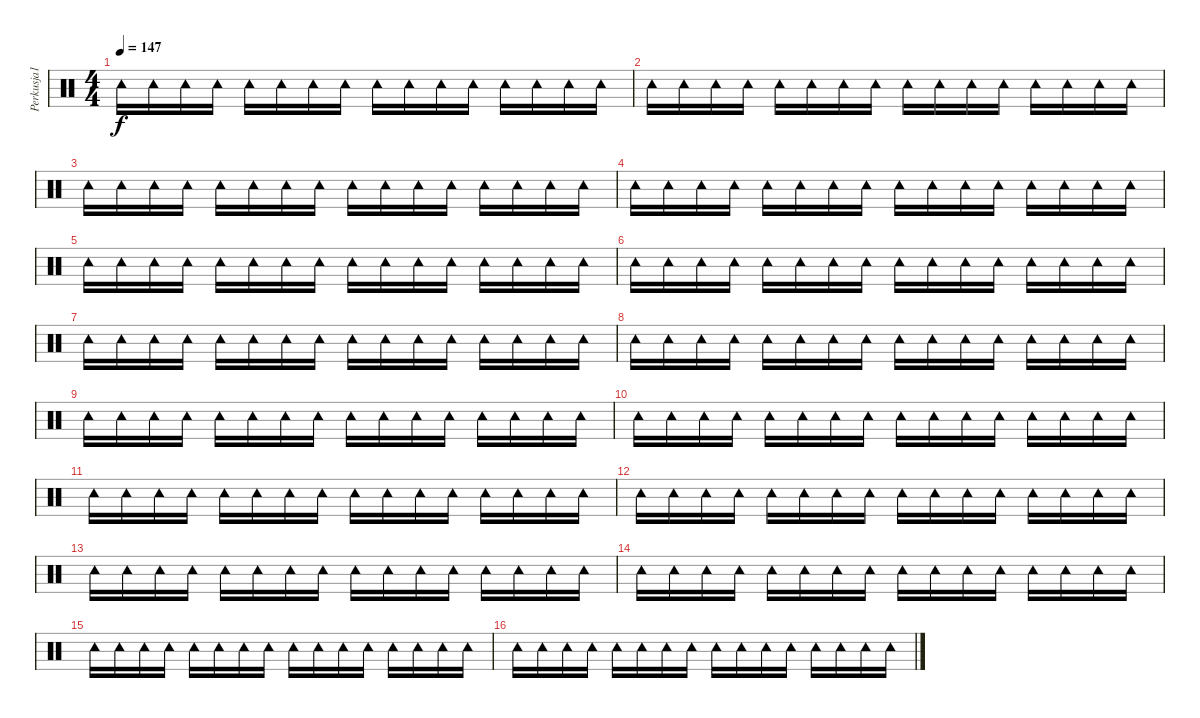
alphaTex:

\track ("Perkusja1" "Perkusja1") {instrument percussion}
\staff {score}
\articulation defaults
\ts (4 4)
\tempo 147
\clef neutral
\ks c "Tambourine (hit)".16{dy f} "Tambourine (hit)".16 "Tambourine (hit)".16 "Tambourine (hit)".16 "Tambourine (hit)".16 "Tambourine (hit)".16 "Tambourine (hit)".16 "Tambourine (hit)".16 "Tambourine (hit)".16 "Tambourine (hit)".16 "Tambourine (hit)".16 "Tambourine (hit)".16 "Tambourine (hit)".16 "Tambourine (hit)".16 "Tambourine (hit)".16 "Tambourine (hit)".16
|
"Tambourine (hit)".16 "Tambourine (hit)".16 "Tambourine (hit)".16 "Tambourine (hit)".16 "Tambourine (hit)".16 "Tambourine (hit)".16 "Tambourine (hit)".16 "Tambourine (hit)".16 "Tambourine (hit)".16 "Tambourine (hit)".16 "Tambourine (hit)".16 "Tambourine (hit)".16 "Tambourine (hit)".16 "Tambourine (hit)".16 "Tambourine (hit)".16 "Tambourine (hit)".16 |
"Tambourine (hit)".16 "Tambourine (hit)".16 "Tambourine (hit)".16 "Tambourine (hit)".16 "Tambourine (hit)".16 "Tambourine (hit)".16 "Tambourine (hit)".16 "Tambourine (hit)".16 "Tambourine (hit)".16 "Tambourine (hit)".16 "Tambourine (hit)".16 "Tambourine (hit)".16 "Tambourine (hit)".16 "Tambourine (hit)".16 "Tambourine (hit)".16 "Tambourine (hit)".16 |
"Tambourine (hit)".16 "Tambourine (hit)".16 "Tambourine (hit)".16 "Tambourine (hit)".16 "Tambourine (hit)".16 "Tambourine (hit)".16 "Tambourine (hit)".16 "Tambourine (hit)".16 "Tambourine (hit)".16 "Tambourine (hit)".16 "Tambourine (hit)".16 "Tambourine (hit)".16 "Tambourine (hit)".16 "Tambourine (hit)".16 "Tambourine (hit)".16 "Tambourine (hit)".16 |
"Tambourine (hit)".16 "Tambourine (hit)".16 "Tambourine (hit)".16 "Tambourine (hit)".16 "Tambourine (hit)".16 "Tambourine (hit)".16 "Tambourine (hit)".16 "Tambourine (hit)".16 "Tambourine (hit)".16 "Tambourine (hit)".16 "Tambourine (hit)".16 "Tambourine (hit)".16 "Tambourine (hit)".16 "Tambourine (hit)".16 "Tambourine (hit)".16 "Tambourine (hit)".16 |
"Tambourine (hit)".16 "Tambourine (hit)".16 "Tambourine (hit)".16 "Tambourine (hit)".16 "Tambourine (hit)".16 "Tambourine (hit)".16 "Tambourine (hit)".16 "Tambourine (hit)".16 "Tambourine (hit)".16 "Tambourine (hit)".16 "Tambourine (hit)".16 "Tambourine (hit)".16 "Tambourine (hit)".16 "Tambourine (hit)".16 "Tambourine (hit)".16 "Tambourine (hit)".16 |
"Tambourine (hit)".16 "Tambourine (hit)".16 "Tambourine (hit)".16 "Tambourine (hit)".16 "Tambourine (hit)".16 "Tambourine (hit)".16 "Tambourine (hit)".16 "Tambourine (hit)".16 "Tambourine (hit)".16 "Tambourine (hit)".16 "Tambourine (hit)".16 "Tambourine (hit)".16 "Tambourine (hit)".16 "Tambourine (hit)".16 "Tambourine (hit)".16 "Tambourine (hit)".16 |
"Tambourine (hit)".16 "Tambourine (hit)".16 "Tambourine (hit)".16 "Tambourine (hit)".16 "Tambourine (hit)".16 "Tambourine (hit)".16 "Tambourine (hit)".16 "Tambourine (hit)".16 "Tambourine (hit)".16 "Tambourine (hit)".16 "Tambourine (hit)".16 "Tambourine (hit)".16 "Tambourine (hit)".16 "Tambourine (hit)".16 "Tambourine (hit)".16 "Tambourine (hit)".16 |
"Tambourine (hit)".16 "Tambourine (hit)".16 "Tambourine (hit)".16 "Tambourine (hit)".16 "Tambourine (hit)".16 "Tambourine (hit)".16 "Tambourine (hit)".16 "Tambourine (hit)".16 "Tambourine (hit)".16 "Tambourine (hit)".16 "Tambourine (hit)".16 "Tambourine (hit)".16 "Tambourine (hit)".16 "Tambourine (hit)".16 "Tambourine (hit)".16 "Tambourine (hit)".16 |
"Tambourine (hit)".16 "Tambourine (hit)".16 "Tambourine (hit)".16 "Tambourine (hit)".16 "Tambourine (hit)".16 "Tambourine (hit)".16 "Tambourine (hit)".16 "Tambourine (hit)".16 "Tambourine (hit)".16 "Tambourine (hit)".16 "Tambourine (hit)".16 "Tambourine (hit)".16 "Tambourine (hit)".16 "Tambourine (hit)".16 "Tambourine (hit)".16 "Tambourine (hit)".16 |
"Tambourine (hit)".16 "Tambourine (hit)".16 "Tambourine (hit)".16 "Tambourine (hit)".16 "Tambourine (hit)".16 "Tambourine (hit)".16 "Tambourine (hit)".16 "Tambourine (hit)".16 "Tambourine (hit)".16 "Tambourine (hit)".16 "Tambourine (hit)".16 "Tambourine (hit)".16 "Tambourine (hit)".16 "Tambourine (hit)".16 "Tambourine (hit)".16 "Tambourine (hit)".16 |
"Tambourine (hit)".16 "Tambourine (hit)".16 "Tambourine (hit)".16 "Tambourine (hit)".16 "Tambourine (hit)".16 "Tambourine (hit)".16 "Tambourine (hit)".16 "Tambourine (hit)".16 "Tambourine (hit)".16 "Tambourine (hit)".16 "Tambourine (hit)".16 "Tambourine (hit)".16 "Tambourine (hit)".16 "Tambourine (hit)".16 "Tambourine (hit)".16 "Tambourine (hit)".16 |
"Tambourine (hit)".16 "Tambourine (hit)".16 "Tambourine (hit)".16 "Tambourine (hit)".16 "Tambourine (hit)".16 "Tambourine (hit)".16 "Tambourine (hit)".16 "Tambourine (hit)".16 "Tambourine (hit)".16 "Tambourine (hit)".16 "Tambourine (hit)".16 "Tambourine (hit)".16 "Tambourine (hit)".16 "Tambourine (hit)".16 "Tambourine (hit)".16 "Tambourine (hit)".16 |
"Tambourine (hit)".16 "Tambourine (hit)".16 "Tambourine (hit)".16 "Tambourine (hit)".16 "Tambourine (hit)".16 "Tambourine (hit)".16 "Tambourine (hit)".16 "Tambourine (hit)".16 "Tambourine (hit)".16 "Tambourine (hit)".16 "Tambourine (hit)".16 "Tambourine (hit)".16 "Tambourine (hit)".16 "Tambourine (hit)".16 "Tambourine (hit)".16 "Tambourine (hit)".16 |
"Tambourine (hit)".16 "Tambourine (hit)".16 "Tambourine (hit)".16 "Tambourine (hit)".16 "Tambourine (hit)".16 "Tambourine (hit)".16 "Tambourine (hit)".16 "Tambourine (hit)".16 "Tambourine (hit)".16 "Tambourine (hit)".16 "Tambourine (hit)".16 "Tambourine (hit)".16 "Tambourine (hit)".16 "Tambourine (hit)".16 "Tambourine (hit)".16 "Tambourine (hit)".16 |
"Tambourine (hit)".16 "Tambourine (hit)".16 "Tambourine (hit)".16 "Tambourine (hit)".16 "Tambourine (hit)".16 "Tambourine (hit)".16 "Tambourine (hit)".16 "Tambourine (hit)".16 "Tambourine (hit)".16 "Tambourine (hit)".16 "Tambourine (hit)".16 "Tambourine (hit)".16 "Tambourine (hit)".16 "Tambourine (hit)".16 "Tambourine (hit)".16 "Tambourine (hit)".16
